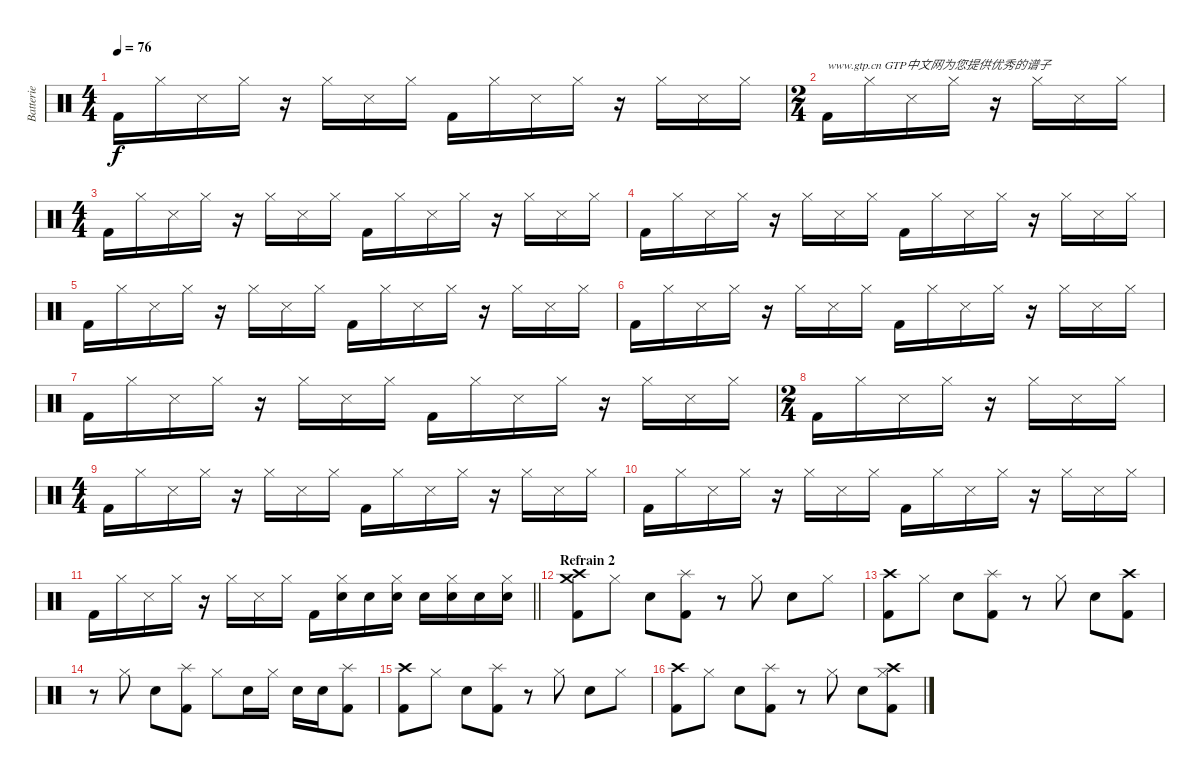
\track ("Batterie" "Batterie") {instrument percussion}
\staff {score}
\articulation defaults
\ts (4 4)
\tempo 76
\clef neutral
\ks c "Kick (hit) 2".16{dy f} "Hi-Hat (closed)".16 "Snare (side stick) 3".16 "Hi-Hat (closed)".16
r.16 "Hi-Hat (closed)".16 "Snare (side stick) 3".16 "Hi-Hat (closed)".16 "Kick (hit) 2".16 "Hi-Hat (closed)".16 "Snare (side stick) 3".16 "Hi-Hat (closed)".16 r.16 "Hi-Hat (closed)".16 "Snare (side stick) 3".16 "Hi-Hat (closed)".16 |
\ts (2 4)
"Kick (hit) 2".16{txt "www.gtp.cn GTP中文网为您提供优秀的谱子"} "Hi-Hat (closed)".16 "Snare (side stick) 3".16 "Hi-Hat (closed)".16 r.16 "Hi-Hat (closed)".16 "Snare (side stick) 3".16 "Hi-Hat (closed)".16 |
\ts (4 4)
"Kick (hit) 2".16 "Hi-Hat (closed)".16 "Snare (side stick) 3".16 "Hi-Hat (closed)".16 r.16 "Hi-Hat (closed)".16 "Snare (side stick) 3".16 "Hi-Hat (closed)".16 "Kick (hit) 2".16 "Hi-Hat (closed)".16 "Snare (side stick) 3".16 "Hi-Hat (closed)".16 r.16 "Hi-Hat (closed)".16 "Snare (side stick) 3".16 "Hi-Hat (closed)".16 |
"Kick (hit) 2".16 "Hi-Hat (closed)".16 "Snare (side stick) 3".16 "Hi-Hat (closed)".16 r.16 "Hi-Hat (closed)".16 "Snare (side stick) 3".16 "Hi-Hat (closed)".16 "Kick (hit) 2".16 "Hi-Hat (closed)".16 "Snare (side stick) 3".16 "Hi-Hat (closed)".16 r.16 "Hi-Hat (closed)".16 "Snare (side stick) 3".16 "Hi-Hat (closed)".16 |
"Kick (hit) 2".16 "Hi-Hat (closed)".16 "Snare (side stick) 3".16 "Hi-Hat (closed)".16 r.16 "Hi-Hat (closed)".16 "Snare (side stick) 3".16 "Hi-Hat (closed)".16 "Kick (hit) 2".16 "Hi-Hat (closed)".16 "Snare (side stick) 3".16 "Hi-Hat (closed)".16 r.16 "Hi-Hat (closed)".16 "Snare (side stick) 3".16 "Hi-Hat (closed)".16 |
"Kick (hit) 2".16 "Hi-Hat (closed)".16 "Snare (side stick) 3".16 "Hi-Hat (closed)".16 r.16 "Hi-Hat (closed)".16 "Snare (side stick) 3".16 "Hi-Hat (closed)".16 "Kick (hit) 2".16 "Hi-Hat (closed)".16 "Snare (side stick) 3".16 "Hi-Hat (closed)".16 r.16 "Hi-Hat (closed)".16 "Snare (side stick) 3".16 "Hi-Hat (closed)".16 |
"Kick (hit) 2".16 "Hi-Hat (closed)".16 "Snare (side stick) 3".16 "Hi-Hat (closed)".16 r.16 "Hi-Hat (closed)".16 "Snare (side stick) 3".16 "Hi-Hat (closed)".16 "Kick (hit) 2".16 "Hi-Hat (closed)".16 "Snare (side stick) 3".16 "Hi-Hat (closed)".16 r.16 "Hi-Hat (closed)".16 "Snare (side stick) 3".16 "Hi-Hat (closed)".16 |
\ts (2 4)
"Kick (hit) 2".16 "Hi-Hat (closed)".16 "Snare (side stick) 3".16 "Hi-Hat (closed)".16 r.16 "Hi-Hat (closed)".16 "Snare (side stick) 3".16 "Hi-Hat (closed)".16 |
\ts (4 4)
"Kick (hit) 2".16 "Hi-Hat (closed)".16 "Snare (side stick) 3".16 "Hi-Hat (closed)".16 r.16 "Hi-Hat (closed)".16 "Snare (side stick) 3".16 "Hi-Hat (closed)".16 "Kick (hit) 2".16 "Hi-Hat (closed)".16 "Snare (side stick) 3".16 "Hi-Hat (closed)".16 r.16 "Hi-Hat (closed)".16 "Snare (side stick) 3".16 "Hi-Hat (closed)".16 |
"Kick (hit) 2".16 "Hi-Hat (closed)".16 "Snare (side stick) 3".16 "Hi-Hat (closed)".16 r.16 "Hi-Hat (closed)".16 "Snare (side stick) 3".16 "Hi-Hat (closed)".16 "Kick (hit) 2".16 "Hi-Hat (closed)".16 "Snare (side stick) 3".16 "Hi-Hat (closed)".16 r.16 "Hi-Hat (closed)".16 "Snare (side stick) 3".16 "Hi-Hat (closed)".16 |
\barLineRight lightlight "Kick (hit) 2".16 "Hi-Hat (closed)".16 "Snare (side stick) 3".16 "Hi-Hat (closed)".16
r.16 "Hi-Hat (closed)".16 "Snare (side stick) 3".16 "Hi-Hat (closed)".16 "Kick (hit) 2".16 ("Hi-Hat (closed)" "Electric Snare (hit)").16 "Electric Snare (hit)".16 ("Hi-Hat (closed)" "Electric Snare (hit)").16 "Electric Snare (hit)".16 ("Hi-Hat (closed)" "Electric Snare (hit)").16 "Electric Snare (hit)".16 ("Hi-Hat (closed)" "Electric Snare (hit)").16 |
\section ("" "Refrain 2")
("Crash high (hit)" "Crash medium (hit)" "Kick (hit) 2").8 "Hi-Hat (closed)".8 "Electric Snare (hit)".8 ("Splash (hit)" "Kick (hit) 2").8 r.8 "Hi-Hat (closed)".8 "Electric Snare (hit)".8 "Hi-Hat (closed)".8 |
("Crash high (hit)" "Kick (hit) 2").8 "Hi-Hat (closed)".8 "Electric Snare (hit)".8 ("Splash (hit)" "Kick (hit) 2").8 r.8 "Hi-Hat (closed)".8 "Electric Snare (hit)".8 ("Crash high (hit)" "Kick (hit) 2").8 |
r.8 "Hi-Hat (closed)".8 "Electric Snare (hit)".8 ("Splash (hit)" "Kick (hit) 2").8 "Hi-Hat (closed)".8 "Electric Snare (hit)".16 "Hi-Hat (closed)".16 "Electric Snare (hit)".16 "Electric Snare (hit)".16 ("Splash (hit)" "Kick (hit) 2").8 |
("Crash high (hit)" "Kick (hit) 2").8 "Hi-Hat (closed)".8 "Electric Snare (hit)".8 ("Splash (hit)" "Kick (hit) 2").8 r.8 "Hi-Hat (closed)".8 "Electric Snare (hit)".8 "Hi-Hat (closed)".8 |
("Crash high (hit)" "Kick (hit) 2").8 "Hi-Hat (closed)".8 "Electric Snare (hit)".8 ("Splash (hit)" "Kick (hit) 2").8 r.8 "Hi-Hat (closed)".8 "Electric Snare (hit)".8 ("Crash high (hit)" "Hi-Hat (closed)" "Kick (hit) 2").8
